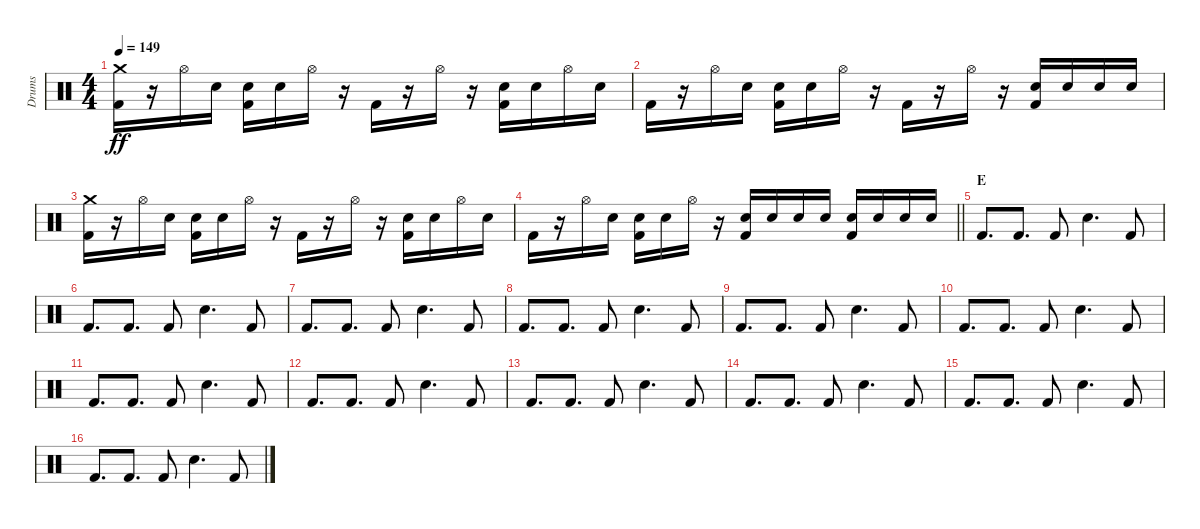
\track ("Drums" "Drums") {instrument percussion}
\staff {score}
\articulation defaults
\ts (4 4)
\tempo 149
\clef neutral
\ks c
("Crash medium (hit)" "Kick (hit) 2").16{dy ff} r.16 "Hi-Hat (open)".16 "Electric Snare (hit)".16 ("Electric Snare (hit)" "Kick (hit) 2").16 "Electric Snare (hit)".16 "Hi-Hat (open)".16 r.16 "Kick (hit) 2".16 r.16 "Hi-Hat (open)".16 r.16 ("Electric Snare (hit)" "Kick (hit) 2").16 "Electric Snare (hit)".16 "Hi-Hat (open)".16 "Electric Snare (hit)".16 |
"Kick (hit) 2".16 r.16 "Hi-Hat (open)".16 "Electric Snare (hit)".16 ("Electric Snare (hit)" "Kick (hit) 2").16 "Electric Snare (hit)".16 "Hi-Hat (open)".16 r.16 "Kick (hit) 2".16 r.16 "Hi-Hat (open)".16 r.16 ("Electric Snare (hit)" "Kick (hit) 2").16 "Electric Snare (hit)".16 "Electric Snare (hit)".16 "Electric Snare (hit)".16 |
("Crash medium (hit)" "Kick (hit) 2").16 r.16 "Hi-Hat (open)".16 "Electric Snare (hit)".16 ("Electric Snare (hit)" "Kick (hit) 2").16 "Electric Snare (hit)".16 "Hi-Hat (open)".16 r.16 "Kick (hit) 2".16 r.16 "Hi-Hat (open)".16 r.16 ("Electric Snare (hit)" "Kick (hit) 2").16 "Electric Snare (hit)".16 "Hi-Hat (open)".16 "Electric Snare (hit)".16 |
\barLineRight lightlight "Kick (hit) 2".16
r.16 "Hi-Hat (open)".16 "Electric Snare (hit)".16 ("Electric Snare (hit)" "Kick (hit) 2").16 "Electric Snare (hit)".16 "Hi-Hat (open)".16 r.16 ("Electric Snare (hit)" "Kick (hit) 2").16 "Electric Snare (hit)".16 "Electric Snare (hit)".16 "Electric Snare (hit)".16 ("Electric Snare (hit)" "Kick (hit) 2").16 "Electric Snare (hit)".16 "Electric Snare (hit)".16 "Electric Snare (hit)".16 |
\section ("" "E")
"Kick (hit) 2".8{d} "Kick (hit) 2".8{d} "Kick (hit) 2".8 "Electric Snare (hit)".4{d} "Kick (hit) 2".8 |
"Kick (hit) 2".8{d} "Kick (hit) 2".8{d} "Kick (hit) 2".8 "Electric Snare (hit)".4{d} "Kick (hit) 2".8 |
"Kick (hit) 2".8{d} "Kick (hit) 2".8{d} "Kick (hit) 2".8 "Electric Snare (hit)".4{d} "Kick (hit) 2".8 |
"Kick (hit) 2".8{d} "Kick (hit) 2".8{d} "Kick (hit) 2".8 "Electric Snare (hit)".4{d} "Kick (hit) 2".8 |
"Kick (hit) 2".8{d} "Kick (hit) 2".8{d} "Kick (hit) 2".8 "Electric Snare (hit)".4{d} "Kick (hit) 2".8 |
"Kick (hit) 2".8{d} "Kick (hit) 2".8{d} "Kick (hit) 2".8 "Electric Snare (hit)".4{d} "Kick (hit) 2".8 |
"Kick (hit) 2".8{d} "Kick (hit) 2".8{d} "Kick (hit) 2".8 "Electric Snare (hit)".4{d} "Kick (hit) 2".8 |
"Kick (hit) 2".8{d} "Kick (hit) 2".8{d} "Kick (hit) 2".8 "Electric Snare (hit)".4{d} "Kick (hit) 2".8 |
"Kick (hit) 2".8{d} "Kick (hit) 2".8{d} "Kick (hit) 2".8 "Electric Snare (hit)".4{d} "Kick (hit) 2".8 |
"Kick (hit) 2".8{d} "Kick (hit) 2".8{d} "Kick (hit) 2".8 "Electric Snare (hit)".4{d} "Kick (hit) 2".8 |
"Kick (hit) 2".8{d} "Kick (hit) 2".8{d} "Kick (hit) 2".8 "Electric Snare (hit)".4{d} "Kick (hit) 2".8 |
"Kick (hit) 2".8{d} "Kick (hit) 2".8{d} "Kick (hit) 2".8 "Electric Snare (hit)".4{d} "Kick (hit) 2".8
